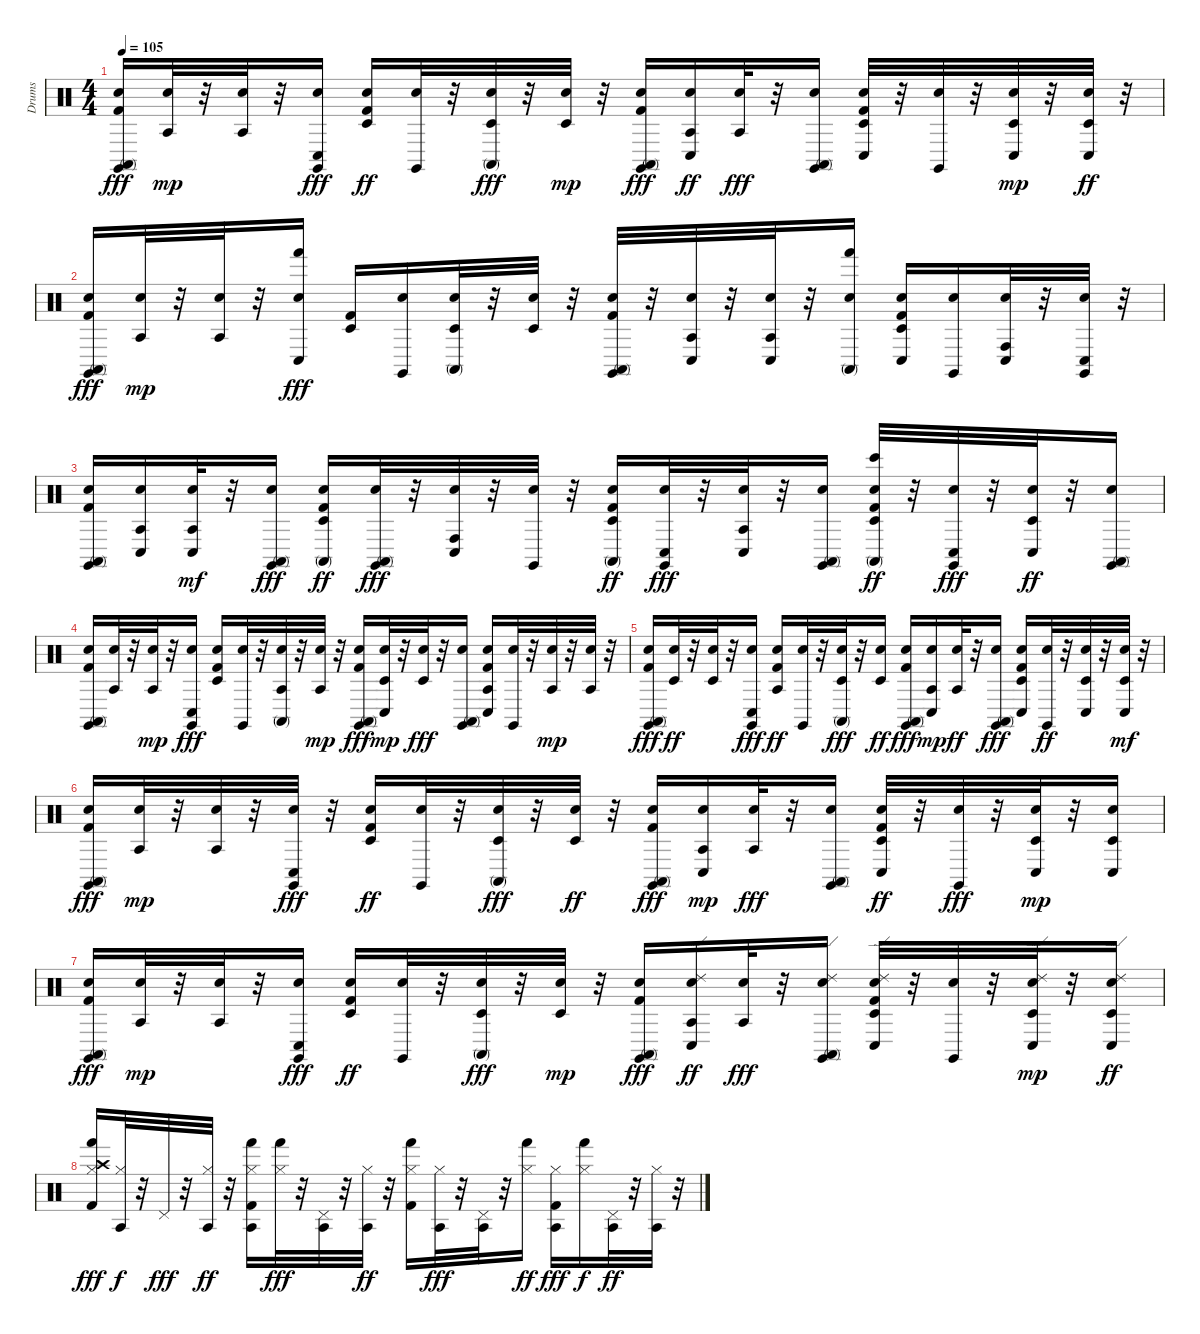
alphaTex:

\track ("Drums" "Drums") {instrument percussion}
\staff {score}
\articulation defaults
\ts (4 4)
\tempo 105
\clef neutral
\ks c
("Kick (hit) 2" "Snare (hit) 2" "Conga high (mute)" "Claves (hit)").16{dy fff} ("Agogo tow (hit)" "Snare (hit) 2").32{dy mp} r.32 ("Agogo tow (hit)" "Snare (hit) 2").32 r.32 ("Conga low (hit)" "Snare (hit) 2" "Claves (hit)").16{dy fff} ("Snare (hit) 2" "Kick (hit) 2" "Timbale low (hit)").16{dy ff} ("Snare (hit) 2" "Claves (hit)").32 r.32 ("Conga high (mute)" "Timbale low (hit)" "Snare (hit) 2").32{dy fff} r.32 ("Timbale low (hit)" "Snare (hit) 2").32{dy mp} r.32 ("Snare (hit) 2" "Kick (hit) 2" "Conga high (mute)" "Claves (hit)").16{dy fff} ("Agogo tow (hit)" "Snare (hit) 2" "Conga low (hit)").16{dy ff} ("Agogo tow (hit)" "Snare (hit) 2").32{dy fff} r.32 ("Conga high (mute)" "Snare (hit) 2" "Claves (hit)").16 ("Timbale low (hit)" "Kick (hit) 2" "Snare (hit) 2" "Conga low (hit)").32 r.32 ("Snare (hit) 2" "Claves (hit)").32 r.32 ("Conga low (hit)" "Timbale low (hit)" "Snare (hit) 2").32{dy mp} r.32 ("Conga low (hit)" "Snare (hit) 2" "Timbale low (hit)").32{dy ff} r.32 |
("Conga high (mute)" "Snare (hit) 2" "Kick (hit) 2" "Claves (hit)").16{dy fff} ("Agogo tow (hit)" "Snare (hit) 2").32{dy mp} r.32 ("Agogo tow (hit)" "Snare (hit) 2").32 r.32 ("Conga low (hit)" "Hand (hit)" "Snare (hit) 2").16{dy fff} ("Kick (hit) 2" "Timbale low (hit)").16 ("Snare (hit) 2" "Claves (hit)").16 ("Conga high (mute)" "Timbale low (hit)" "Snare (hit) 2").32 r.32 ("Snare (hit) 2" "Timbale low (hit)").32 r.32 ("Conga high (mute)" "Snare (hit) 2" "Kick (hit) 2" "Claves (hit)").32 r.32 ("Conga low (hit)" "Snare (hit) 2" "Agogo tow (hit)").32 r.32 ("Conga low (hit)" "Snare (hit) 2" "Agogo tow (hit)").32 r.32 ("Conga high (mute)" "Snare (hit) 2" "Hand (hit)").16 ("Snare (hit) 2" "Kick (hit) 2" "Timbale low (hit)" "Conga low (hit)").16 ("Snare (hit) 2" "Claves (hit)").16 ("Snare (hit) 2" "Conga high (hit)" "Conga low (hit)").32 r.32 ("Conga low (hit)" "Snare (hit) 2" "Claves (hit)").32 r.32 |
("Snare (hit) 2" "Kick (hit) 2" "Conga high (mute)" "Claves (hit)").16 ("Conga low (hit)" "Snare (hit) 2" "Agogo tow (hit)").16 ("Snare (hit) 2" "Agogo tow (hit)" "Conga low (hit)").32{dy mf} r.32 ("Conga high (mute)" "Snare (hit) 2" "Claves (hit)").16{dy fff} ("Snare (hit) 2" "Kick (hit) 2" "Timbale low (hit)" "Conga high (mute)").16{dy ff} ("Snare (hit) 2" "Conga high (mute)" "Claves (hit)").32{dy fff} r.32 ("Snare (hit) 2" "Conga high (hit)" "Conga low (hit)").32 r.32 ("Snare (hit) 2" "Claves (hit)").32 r.32 ("Timbale low (hit)" "Snare (hit) 2" "Kick (hit) 2" "Conga high (mute)").16{dy ff} ("Conga low (hit)" "Snare (hit) 2" "Claves (hit)").32{dy fff} r.32 ("Agogo tow (hit)" "Snare (hit) 2" "Conga low (hit)").32 r.32 ("Snare (hit) 2" "Conga high (mute)" "Claves (hit)").16 ("Timbale low (hit)" "Snare (hit) 2" "Kick (hit) 2" "Conga high (mute)" "Bongo High (hit)").32{dy ff} r.32 ("Snare (hit) 2" "Conga low (hit)" "Claves (hit)").32{dy fff} r.32 ("Snare (hit) 2" "Timbale low (hit)" "Conga low (hit)").32{dy ff} r.32 ("Conga high (mute)" "Snare (hit) 2" "Claves (hit)").16 |
("Conga high (mute)" "Snare (hit) 2" "Kick (hit) 2" "Claves (hit)").16 ("Snare (hit) 2" "Agogo tow (hit)").32 r.32 ("Snare (hit) 2" "Agogo tow (hit)").32{dy mp} r.32 ("Snare (hit) 2" "Conga low (hit)" "Claves (hit)").16{dy fff} ("Timbale low (hit)" "Snare (hit) 2" "Kick (hit) 2").16 ("Snare (hit) 2" "Claves (hit)").32 r.32 ("Conga high (mute)" "Agogo tow (hit)" "Snare (hit) 2").32 r.32 ("Agogo tow (hit)" "Snare (hit) 2").32{dy mp} r.32 ("Snare (hit) 2" "Kick (hit) 2" "Conga high (mute)" "Claves (hit)").16{dy fff} ("Snare (hit) 2" "Timbale low (hit)" "Conga low (hit)").32{dy mp} r.32 ("Timbale low (hit)" "Snare (hit) 2").32{dy fff} r.32 ("Conga high (mute)" "Snare (hit) 2" "Claves (hit)").16 ("Conga low (hit)" "Agogo tow (hit)" "Snare (hit) 2" "Kick (hit) 2").16 ("Snare (hit) 2" "Claves (hit)").32 r.32 ("Agogo tow (hit)" "Snare (hit) 2").32{dy mp} r.32 ("Agogo tow (hit)" "Snare (hit) 2").32 r.32 |
("Conga high (mute)" "Snare (hit) 2" "Kick (hit) 2" "Claves (hit)").16{dy fff} ("Snare (hit) 2" "Timbale low (hit)").32{dy ff} r.32 ("Snare (hit) 2" "Timbale low (hit)").32 r.32 ("Conga low (hit)" "Snare (hit) 2" "Claves (hit)").16{dy fff} ("Snare (hit) 2" "Kick (hit) 2" "Agogo tow (hit)").16{dy ff} ("Snare (hit) 2" "Claves (hit)").32 r.32 ("Conga high (mute)" "Timbale low (hit)" "Snare (hit) 2").32{dy fff} r.32 ("Snare (hit) 2" "Timbale low (hit)").16{dy ff} ("Conga high (mute)" "Snare (hit) 2" "Kick (hit) 2" "Claves (hit)").16{dy fff} ("Conga low (hit)" "Agogo tow (hit)" "Snare (hit) 2").16{dy mp} ("Snare (hit) 2" "Agogo tow (hit)").32{dy ff} r.32 ("Conga high (mute)" "Snare (hit) 2" "Claves (hit)").16{dy fff} ("Timbale low (hit)" "Snare (hit) 2" "Kick (hit) 2" "Conga low (hit)").16 ("Snare (hit) 2" "Claves (hit)").32{dy ff} r.32 ("Timbale low (hit)" "Snare (hit) 2" "Conga low (hit)").32 r.32 ("Timbale low (hit)" "Snare (hit) 2" "Conga low (hit)").32{dy mf} r.32 |
("Kick (hit) 2" "Snare (hit) 2" "Conga high (mute)" "Claves (hit)").16{dy fff} ("Agogo tow (hit)" "Snare (hit) 2").32{dy mp} r.32 ("Agogo tow (hit)" "Snare (hit) 2").32 r.32 ("Conga low (hit)" "Snare (hit) 2" "Claves (hit)").32{dy fff} r.32 ("Snare (hit) 2" "Kick (hit) 2" "Timbale low (hit)").16{dy ff} ("Snare (hit) 2" "Claves (hit)").32 r.32 ("Conga high (mute)" "Timbale low (hit)" "Snare (hit) 2").32{dy fff} r.32 ("Snare (hit) 2" "Timbale low (hit)").32{dy ff} r.32 ("Conga high (mute)" "Snare (hit) 2" "Kick (hit) 2" "Claves (hit)").16{dy fff} ("Conga low (hit)" "Agogo tow (hit)" "Snare (hit) 2").16{dy mp} ("Agogo tow (hit)" "Snare (hit) 2").32{dy fff} r.32 ("Conga high (mute)" "Snare (hit) 2" "Claves (hit)").16 ("Kick (hit) 2" "Snare (hit) 2" "Timbale low (hit)" "Conga low (hit)").32{dy ff} r.32 ("Snare (hit) 2" "Claves (hit)").32{dy fff} r.32 ("Timbale low (hit)" "Snare (hit) 2" "Conga low (hit)").32{dy mp} r.32 ("Conga low (hit)" "Timbale low (hit)" "Snare (hit) 2").16 |
("Kick (hit) 2" "Snare (hit) 2" "Conga high (mute)" "Claves (hit)").16{dy fff} ("Agogo tow (hit)" "Snare (hit) 2").32{dy mp} r.32 ("Agogo tow (hit)" "Snare (hit) 2").32 r.32 ("Conga low (hit)" "Snare (hit) 2" "Claves (hit)").16{dy fff} ("Snare (hit) 2" "Kick (hit) 2" "Timbale low (hit)").16{dy ff} ("Snare (hit) 2" "Claves (hit)").32 r.32 ("Conga high (mute)" "Timbale low (hit)" "Snare (hit) 2").32{dy fff} r.32 ("Timbale low (hit)" "Snare (hit) 2").32{dy mp} r.32 ("Snare (hit) 2" "Kick (hit) 2" "Conga high (mute)" "Claves (hit)").16{dy fff} ("Ride (edge) 2" "Agogo tow (hit)" "Snare (hit) 2" "Conga low (hit)").16{dy ff} ("Agogo tow (hit)" "Snare (hit) 2").32{dy fff} r.32 ("Ride (edge) 2" "Conga high (mute)" "Snare (hit) 2" "Claves (hit)").16 ("Ride (edge) 2" "Timbale low (hit)" "Kick (hit) 2" "Snare (hit) 2" "Conga low (hit)").32 r.32 ("Snare (hit) 2" "Claves (hit)").32 r.32 ("Ride (edge) 2" "Conga low (hit)" "Timbale low (hit)" "Snare (hit) 2").32{dy mp} r.32 ("Ride (edge) 2" "Conga low (hit)" "Snare (hit) 2" "Timbale low (hit)").16{dy ff} |
("Kick (hit) 2" "Crash high (hit)" "Hi-Hat (closed)" "Hand (hit)").16{dy fff} ("Hi-Hat (closed)" "Agogo tow (hit)").32{dy f} r.32 "Pedal Hi-Hat (hit)".32{dy fff} r.32 ("Agogo tow (hit)" "Hi-Hat (closed)").32{dy ff} r.32 ("Hand (hit)" "Kick (hit) 2" "Hi-Hat (closed)" "Agogo tow (hit)").16 ("Hi-Hat (closed)" "Hand (hit)").32{dy fff} r.32 ("Pedal Hi-Hat (hit)" "Agogo tow (hit)").32 r.32 ("Hi-Hat (closed)" "Agogo tow (hit)").32{dy ff} r.32 ("Hand (hit)" "Kick (hit) 2" "Hi-Hat (closed)").16 ("Agogo tow (hit)" "Hi-Hat (closed)").32{dy fff} r.32 ("Agogo tow (hit)" "Pedal Hi-Hat (hit)").32 r.32 ("Hand (hit)" "Hi-Hat (closed)").16{dy ff} ("Agogo tow (hit)" "Kick (hit) 2" "Hi-Hat (closed)").16{dy fff} ("Hand (hit)" "Hi-Hat (closed)").16{dy f} ("Agogo tow (hit)" "Pedal Hi-Hat (hit)").32{dy ff} r.32 ("Agogo tow (hit)" "Hi-Hat (closed)").32 r.32
